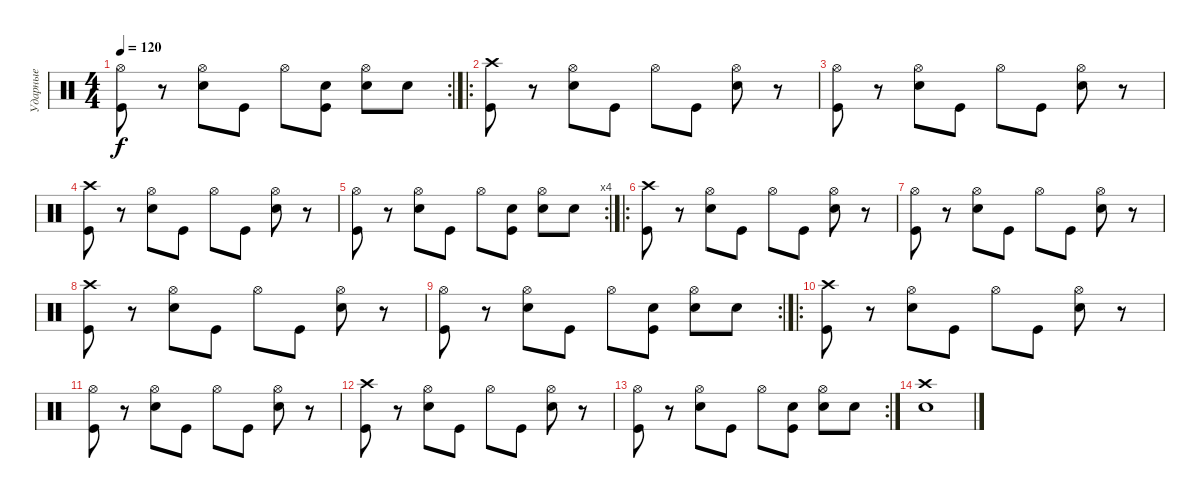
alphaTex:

\track ("Ударные" "Ударные") {instrument percussion}
\staff {score}
\articulation defaults
\rc 2
\ts (4 4)
\tempo 120
\clef neutral
\ks c
("Kick (hit)" "Hi-Hat (open)").8{dy f} r.8 ("Snare (hit) 2" "Hi-Hat (open)").8 "Kick (hit)".8 "Hi-Hat (open)".8 ("Kick (hit)" "Snare (hit) 2").8 ("Snare (hit) 2" "Hi-Hat (open)").8 "Snare (hit) 2".8 |
\ro
("Kick (hit)" "Crash high (hit)").8 r.8 ("Snare (hit) 2" "Hi-Hat (open)").8 "Kick (hit)".8 "Hi-Hat (open)".8 "Kick (hit)".8 ("Snare (hit) 2" "Hi-Hat (open)").8 r.8 |
("Kick (hit)" "Hi-Hat (open)").8 r.8 ("Snare (hit) 2" "Hi-Hat (open)").8 "Kick (hit)".8 "Hi-Hat (open)".8 "Kick (hit)".8 ("Snare (hit) 2" "Hi-Hat (open)").8 r.8 |
("Kick (hit)" "Crash high (hit)").8 r.8 ("Snare (hit) 2" "Hi-Hat (open)").8 "Kick (hit)".8 "Hi-Hat (open)".8 "Kick (hit)".8 ("Snare (hit) 2" "Hi-Hat (open)").8 r.8 |
\rc 4
("Kick (hit)" "Hi-Hat (open)").8 r.8 ("Snare (hit) 2" "Hi-Hat (open)").8 "Kick (hit)".8 "Hi-Hat (open)".8 ("Kick (hit)" "Snare (hit) 2").8 ("Snare (hit) 2" "Hi-Hat (open)").8 "Snare (hit) 2".8 |
\ro
("Kick (hit)" "Crash high (hit)").8 r.8 ("Snare (hit) 2" "Hi-Hat (open)").8 "Kick (hit)".8 "Hi-Hat (open)".8 "Kick (hit)".8 ("Snare (hit) 2" "Hi-Hat (open)").8 r.8 |
("Kick (hit)" "Hi-Hat (open)").8 r.8 ("Snare (hit) 2" "Hi-Hat (open)").8 "Kick (hit)".8 "Hi-Hat (open)".8 "Kick (hit)".8 ("Snare (hit) 2" "Hi-Hat (open)").8 r.8 |
("Kick (hit)" "Crash high (hit)").8 r.8 ("Snare (hit) 2" "Hi-Hat (open)").8 "Kick (hit)".8 "Hi-Hat (open)".8 "Kick (hit)".8 ("Snare (hit) 2" "Hi-Hat (open)").8 r.8 |
\rc 2
("Kick (hit)" "Hi-Hat (open)").8 r.8 ("Snare (hit) 2" "Hi-Hat (open)").8 "Kick (hit)".8 "Hi-Hat (open)".8 ("Kick (hit)" "Snare (hit) 2").8 ("Snare (hit) 2" "Hi-Hat (open)").8 "Snare (hit) 2".8 |
\ro
("Kick (hit)" "Crash high (hit)").8 r.8 ("Snare (hit) 2" "Hi-Hat (open)").8 "Kick (hit)".8 "Hi-Hat (open)".8 "Kick (hit)".8 ("Snare (hit) 2" "Hi-Hat (open)").8 r.8 |
("Kick (hit)" "Hi-Hat (open)").8 r.8 ("Snare (hit) 2" "Hi-Hat (open)").8 "Kick (hit)".8 "Hi-Hat (open)".8 "Kick (hit)".8 ("Snare (hit) 2" "Hi-Hat (open)").8 r.8 |
("Kick (hit)" "Crash high (hit)").8 r.8 ("Snare (hit) 2" "Hi-Hat (open)").8 "Kick (hit)".8 "Hi-Hat (open)".8 "Kick (hit)".8 ("Snare (hit) 2" "Hi-Hat (open)").8 r.8 |
\rc 2
("Kick (hit)" "Hi-Hat (open)").8 r.8 ("Snare (hit) 2" "Hi-Hat (open)").8 "Kick (hit)".8 "Hi-Hat (open)".8 ("Kick (hit)" "Snare (hit) 2").8 ("Snare (hit) 2" "Hi-Hat (open)").8 "Snare (hit) 2".8 |
("Snare (hit) 2" "Crash high (hit)").1
